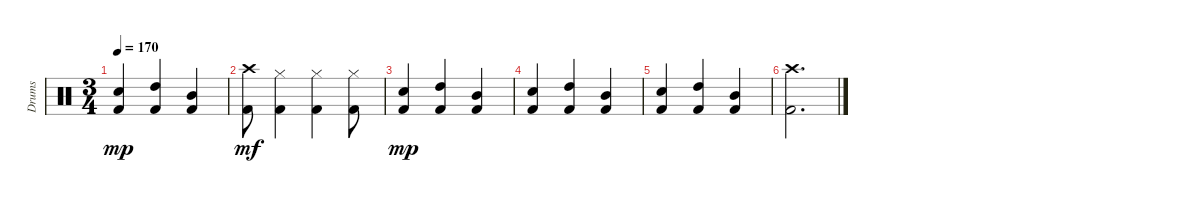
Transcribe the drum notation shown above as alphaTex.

\track ("Drums" "Drums") {instrument percussion}
\staff {score}
\articulation defaults
\ts (3 4)
\tempo 170
\clef neutral
\ks c
("Snare (hit) 2" "Kick (hit) 2").4{dy mp} ("High Tom (hit)" "Kick (hit) 2").4 ("Mid Tom (hit)" "Kick (hit) 2").4 |
("Crash high (hit)" "Kick (hit) 2").8{dy mf} ("Hi-Hat (closed)" "Kick (hit) 2").4 ("Hi-Hat (closed)" "Kick (hit) 2").4 ("Hi-Hat (closed)" "Kick (hit) 2").8 |
("Snare (hit) 2" "Kick (hit) 2").4{dy mp} ("High Tom (hit)" "Kick (hit) 2").4 ("Mid Tom (hit)" "Kick (hit) 2").4 |
("Snare (hit) 2" "Kick (hit) 2").4 ("High Tom (hit)" "Kick (hit) 2").4 ("Mid Tom (hit)" "Kick (hit) 2").4 |
("Snare (hit) 2" "Kick (hit) 2").4 ("High Tom (hit)" "Kick (hit) 2").4 ("Mid Tom (hit)" "Kick (hit) 2").4 |
("Crash high (hit)" "Kick (hit) 2").2{d}
